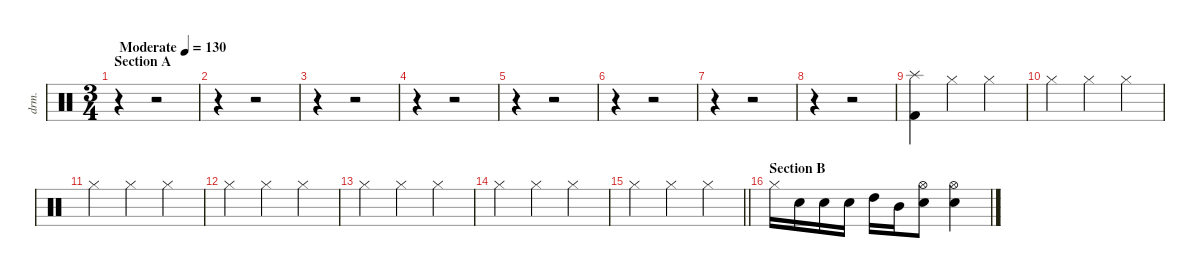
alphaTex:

\defaultSystemsLayout 4
\hideDynamics
\bracketExtendMode nobrackets
\otherSystemsTrackNameOrientation horizontal
\track ("Percussion" "drm.") {instrument percussion}
\staff {score}
\articulation defaults
\ts (3 4)
\beaming (8 2 2 2)
\section ("" "Section A")
\tempo (130 "Moderate")
\clef neutral
\ks c
r.4{dy f beam Down} r.2{beam Down} |
r.4{beam Down} r.2{beam Down} |
r.4{beam Down} r.2{beam Down} |
r.4{beam Down} r.2{beam Down} |
r.4{beam Down} r.2{beam Down} |
r.4{beam Down} r.2{beam Down} |
r.4{beam Down} r.2{beam Down} |
r.4{beam Down} r.2{beam Down} |
("Splash (hit)" "Kick (hit) 2").4{beam Down} "Hi-Hat (closed)".4{beam Down} "Hi-Hat (closed)".4{beam Down} |
"Hi-Hat (closed)".4{beam Down} "Hi-Hat (closed)".4{beam Down} "Hi-Hat (closed)".4{beam Down} |
"Hi-Hat (closed)".4{beam Down} "Hi-Hat (closed)".4{beam Down} "Hi-Hat (closed)".4{beam Down} |
"Hi-Hat (closed)".4{beam Down} "Hi-Hat (closed)".4{beam Down} "Hi-Hat (closed)".4{beam Down} |
"Hi-Hat (closed)".4{beam Down} "Hi-Hat (closed)".4{beam Down} "Hi-Hat (closed)".4{beam Down} |
"Hi-Hat (closed)".4{beam Down} "Hi-Hat (closed)".4{beam Down} "Hi-Hat (closed)".4{beam Down} |
\barLineRight lightlight "Hi-Hat (closed)".4{beam Down} "Hi-Hat (closed)".4{beam Down} "Hi-Hat (closed)".4{beam Down}
|
\section ("" "Section B")
"Hi-Hat (closed)".16{beam Down} "Snare (hit) 2".16{beam Down} "Snare (hit) 2".16{beam Down} "Snare (hit) 2".16{beam Down} "High Tom (hit)".16{beam Down} "Mid Tom (hit)".16{beam Down} ("Hi-Hat (open)" "Snare (hit) 2").8{beam Down} ("Hi-Hat (open)" "Snare (hit) 2").4{beam Down}
